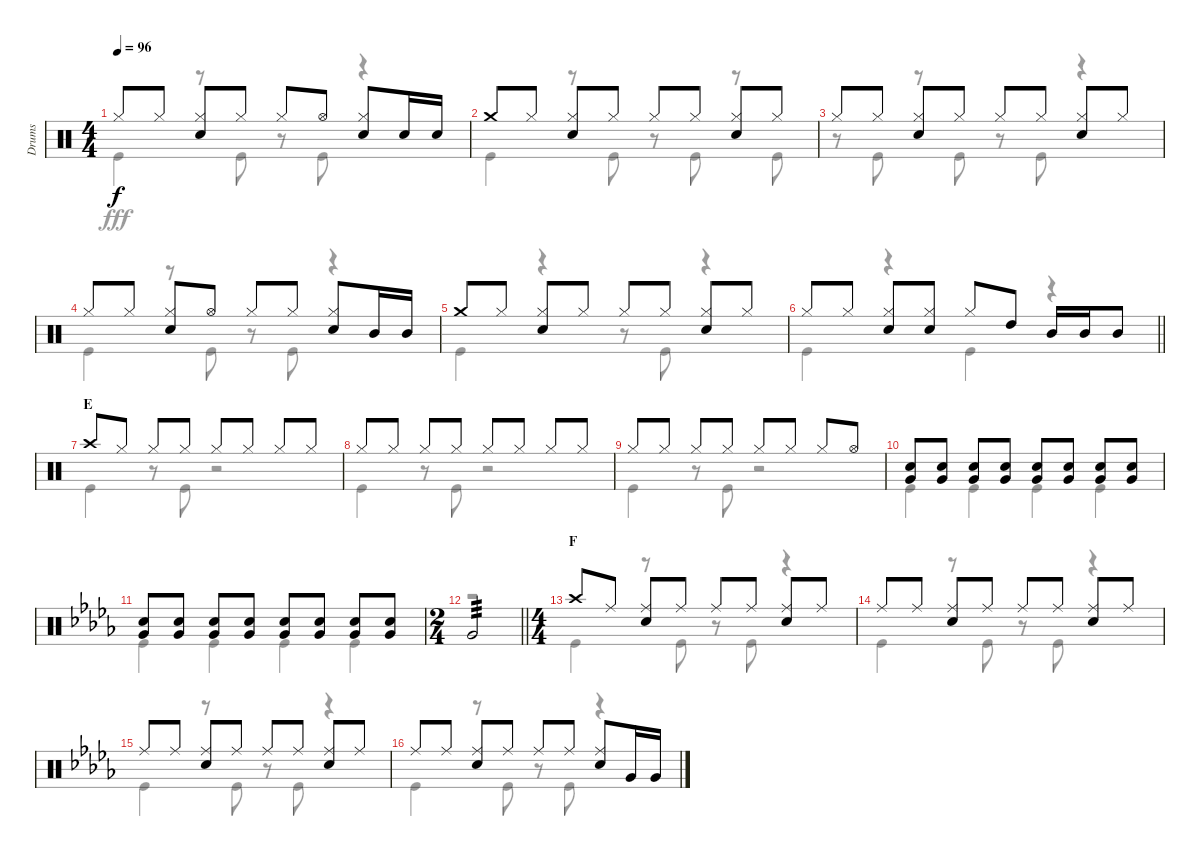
\track ("Drums" "Drums") {instrument percussion}
\staff {score}
\articulation defaults
\voice
\ts (4 4)
\tempo 96
\clef neutral
\ks c "Hi-Hat (closed)".8{dy f} "Hi-Hat (closed)".8
("Hi-Hat (closed)" "Snare (hit) 2").8 "Hi-Hat (closed)".8 "Hi-Hat (closed)".8 "Hi-Hat (open)".8 ("Hi-Hat (closed)" "Snare (hit) 2").8 "Snare (hit) 2".16 "Snare (hit) 2".16 |
"Crash medium (hit)".8 "Hi-Hat (closed)".8 ("Hi-Hat (closed)" "Snare (hit) 2").8 "Hi-Hat (closed)".8 "Hi-Hat (closed)".8 "Hi-Hat (closed)".8 ("Hi-Hat (closed)" "Snare (hit) 2").8 "Hi-Hat (closed)".8 |
"Hi-Hat (closed)".8 "Hi-Hat (closed)".8 ("Hi-Hat (closed)" "Snare (hit) 2").8 "Hi-Hat (closed)".8 "Hi-Hat (closed)".8 "Hi-Hat (closed)".8 ("Hi-Hat (closed)" "Snare (hit) 2").8 "Hi-Hat (closed)".8 |
"Hi-Hat (closed)".8 "Hi-Hat (closed)".8 ("Hi-Hat (closed)" "Snare (hit) 2").8 "Hi-Hat (open)".8 "Hi-Hat (closed)".8 "Hi-Hat (closed)".8 ("Hi-Hat (closed)" "Snare (hit) 2").8 "Mid Tom (hit)".16 "Mid Tom (hit)".16 |
"Crash medium (hit)".8 "Hi-Hat (closed)".8 ("Hi-Hat (closed)" "Snare (hit) 2").8 "Hi-Hat (closed)".8 "Hi-Hat (closed)".8 "Hi-Hat (closed)".8 ("Hi-Hat (closed)" "Snare (hit) 2").8 "Hi-Hat (closed)".8 |
\barLineRight lightlight "Hi-Hat (closed)".8 "Hi-Hat (closed)".8
("Hi-Hat (closed)" "Snare (hit) 2").8 ("Hi-Hat (closed)" "Snare (hit) 2").8 "Hi-Hat (closed)".8 "High Tom (hit)".8 "Mid Tom (hit)".16 "Mid Tom (hit)".16 "Mid Tom (hit)".8 |
\section ("" "E")
"Crash high (hit)".8 "Hi-Hat (closed)".8 "Hi-Hat (closed)".8 "Hi-Hat (closed)".8 "Hi-Hat (closed)".8 "Hi-Hat (closed)".8 "Hi-Hat (closed)".8 "Hi-Hat (closed)".8 |
"Hi-Hat (closed)".8 "Hi-Hat (closed)".8 "Hi-Hat (closed)".8 "Hi-Hat (closed)".8 "Hi-Hat (closed)".8 "Hi-Hat (closed)".8 "Hi-Hat (closed)".8 "Hi-Hat (closed)".8 |
"Hi-Hat (closed)".8 "Hi-Hat (closed)".8 "Hi-Hat (closed)".8 "Hi-Hat (closed)".8 "Hi-Hat (closed)".8 "Hi-Hat (closed)".8 "Hi-Hat (closed)".8 "Hi-Hat (open)".8 |
("Snare (hit) 2" "Very Low Tom (hit)").8 ("Snare (hit) 2" "Very Low Tom (hit)").8 ("Snare (hit) 2" "Very Low Tom (hit)").8 ("Snare (hit) 2" "Very Low Tom (hit)").8 ("Snare (hit) 2" "Very Low Tom (hit)").8 ("Snare (hit) 2" "Very Low Tom (hit)").8 ("Snare (hit) 2" "Very Low Tom (hit)").8 ("Snare (hit) 2" "Very Low Tom (hit)").8 |
\ks db
("Snare (hit) 2" "Very Low Tom (hit)").8 ("Snare (hit) 2" "Very Low Tom (hit)").8 ("Snare (hit) 2" "Very Low Tom (hit)").8 ("Snare (hit) 2" "Very Low Tom (hit)").8 ("Snare (hit) 2" "Very Low Tom (hit)").8 ("Snare (hit) 2" "Very Low Tom (hit)").8 ("Snare (hit) 2" "Very Low Tom (hit)").8 ("Snare (hit) 2" "Very Low Tom (hit)").8 |
\ts (2 4)
\barLineRight lightlight "Very Low Tom (hit)".2{tp 3}
|
\ts (4 4)
\section ("" "F")
"Crash high (hit)".8 "Ride (middle)".8 ("Ride (middle)" "Snare (hit) 2").8 "Ride (middle)".8 "Ride (middle)".8 "Ride (middle)".8 ("Ride (middle)" "Snare (hit) 2").8 "Ride (middle)".8 |
"Ride (middle)".8 "Ride (middle)".8 ("Ride (middle)" "Snare (hit) 2").8 "Ride (middle)".8 "Ride (middle)".8 "Ride (middle)".8 ("Ride (middle)" "Snare (hit) 2").8 "Ride (middle)".8 |
"Ride (middle)".8 "Ride (middle)".8 ("Ride (middle)" "Snare (hit) 2").8 "Ride (middle)".8 "Ride (middle)".8 "Ride (middle)".8 ("Ride (middle)" "Snare (hit) 2").8 "Ride (middle)".8 |
"Ride (middle)".8 "Ride (middle)".8 ("Ride (middle)" "Snare (hit) 2").8 "Ride (middle)".8 "Ride (middle)".8 "Ride (middle)".8 ("Ride (middle)" "Snare (hit) 2").8 "Very Low Tom (hit)".16 "Very Low Tom (hit)".16
\voice
\clef neutral
\ottava regular
\simile none
\ks c "Kick (hit)".4{dy fff}
r.8 "Kick (hit)".8 r.8 "Kick (hit)".8 r.4 |
"Kick (hit)".4 r.8 "Kick (hit)".8 r.8 "Kick (hit)".8 r.8 "Kick (hit)".8 |
r.8 "Kick (hit)".8 r.8 "Kick (hit)".8 r.8 "Kick (hit)".8 r.4 |
"Kick (hit)".4 r.8 "Kick (hit)".8 r.8 "Kick (hit)".8 r.4 |
"Kick (hit)".4 r.4 r.8 "Kick (hit)".8 r.4 |
\barLineRight lightlight "Kick (hit)".4
r.4 "Kick (hit)".4 r.4 |
"Kick (hit)".4 r.8 "Kick (hit)".8 r.2 |
"Kick (hit)".4 r.8 "Kick (hit)".8 r.2 |
"Kick (hit)".4 r.8 "Kick (hit)".8 r.2 |
"Kick (hit)".4 "Kick (hit)".4 "Kick (hit)".4 "Kick (hit)".4 |
\ks db "Kick (hit)".4 "Kick (hit)".4 "Kick (hit)".4 "Kick (hit)".4
|
\barLineRight lightlight
r.2 |
"Kick (hit)".4 r.8 "Kick (hit)".8 r.8 "Kick (hit)".8 r.4 |
"Kick (hit)".4 r.8 "Kick (hit)".8 r.8 "Kick (hit)".8 r.4 |
"Kick (hit)".4 r.8 "Kick (hit)".8 r.8 "Kick (hit)".8 r.4 |
"Kick (hit)".4 r.8 "Kick (hit)".8 r.8 "Kick (hit)".8 r.4
